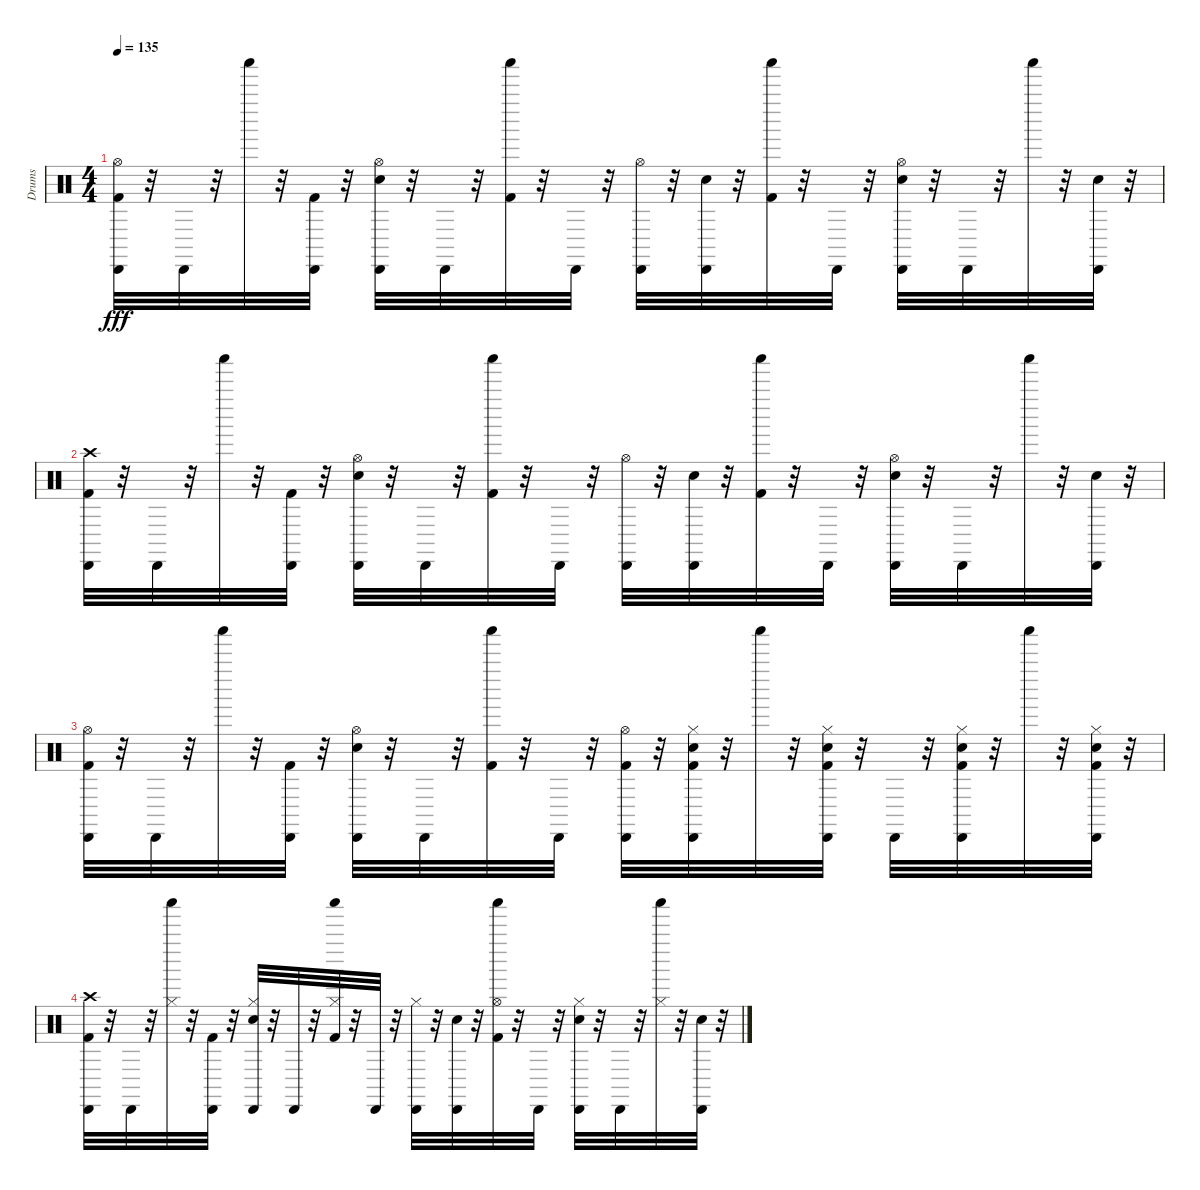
\track ("Drums" "Drums") {instrument percussion}
\staff {score}
\articulation defaults
\ts (4 4)
\tempo 135
\clef neutral
\ks c
("Hi-Hat (open)" "Kick (hit) 2" "Cabasa (hit)").32{dy fff} r.32 "Cabasa (hit)".32 r.32 "Shaker (hit)".32 r.32 ("Kick (hit) 2" "Cabasa (hit)").32 r.32 ("Snare (hit) 2" "Hi-Hat (open)" "Cabasa (hit)").32 r.32 "Cabasa (hit)".32 r.32 ("Kick (hit) 2" "Shaker (hit)").32 r.32 "Cabasa (hit)".32 r.32 ("Hi-Hat (open)" "Cabasa (hit)").32 r.32 ("Snare (hit) 2" "Cabasa (hit)").32 r.32 ("Kick (hit) 2" "Shaker (hit)").32 r.32 "Cabasa (hit)".32 r.32 ("Snare (hit) 2" "Hi-Hat (open)" "Cabasa (hit)").32 r.32 "Cabasa (hit)".32 r.32 "Shaker (hit)".32 r.32 ("Snare (hit) 2" "Cabasa (hit)").32 r.32 |
("Crash high (hit)" "Kick (hit) 2" "Cabasa (hit)").32 r.32 "Cabasa (hit)".32 r.32 "Shaker (hit)".32 r.32 ("Kick (hit) 2" "Cabasa (hit)").32 r.32 ("Snare (hit) 2" "Hi-Hat (open)" "Cabasa (hit)").32 r.32 "Cabasa (hit)".32 r.32 ("Kick (hit) 2" "Shaker (hit)").32 r.32 "Cabasa (hit)".32 r.32 ("Hi-Hat (open)" "Cabasa (hit)").32 r.32 ("Snare (hit) 2" "Cabasa (hit)").32 r.32 ("Kick (hit) 2" "Shaker (hit)").32 r.32 "Cabasa (hit)".32 r.32 ("Snare (hit) 2" "Hi-Hat (open)" "Cabasa (hit)").32 r.32 "Cabasa (hit)".32 r.32 "Shaker (hit)".32 r.32 ("Snare (hit) 2" "Cabasa (hit)").32 r.32 |
("Hi-Hat (open)" "Kick (hit) 2" "Cabasa (hit)").32 r.32 "Cabasa (hit)".32 r.32 "Shaker (hit)".32 r.32 ("Kick (hit) 2" "Cabasa (hit)").32 r.32 ("Snare (hit) 2" "Hi-Hat (open)" "Cabasa (hit)").32 r.32 "Cabasa (hit)".32 r.32 ("Kick (hit) 2" "Shaker (hit)").32 r.32 "Cabasa (hit)".32 r.32 ("Hi-Hat (open)" "Kick (hit) 2" "Cabasa (hit)").32 r.32 ("Snare (hit) 2" "Kick (hit) 2" "Hi-Hat (closed)" "Cabasa (hit)").32 r.32 "Shaker (hit)".32 r.32 ("Kick (hit) 2" "Snare (hit) 2" "Hi-Hat (closed)" "Cabasa (hit)").32 r.32 "Cabasa (hit)".32 r.32 ("Kick (hit) 2" "Snare (hit) 2" "Hi-Hat (closed)" "Cabasa (hit)").32 r.32 "Shaker (hit)".32 r.32 ("Snare (hit) 2" "Kick (hit) 2" "Hi-Hat (closed)" "Cabasa (hit)").32 r.32 |
("Crash high (hit)" "Kick (hit) 2" "Cabasa (hit)").32 r.32 "Cabasa (hit)".32 r.32 ("Shaker (hit)" "Hi-Hat (closed)").32 r.32 ("Kick (hit) 2" "Cabasa (hit)").32 r.32 ("Snare (hit) 2" "Hi-Hat (closed)" "Cabasa (hit)").32 r.32 "Cabasa (hit)".32 r.32 ("Kick (hit) 2" "Shaker (hit)" "Hi-Hat (closed)").32 r.32 "Cabasa (hit)".32 r.32 ("Hi-Hat (closed)" "Cabasa (hit)").32 r.32 ("Snare (hit) 2" "Cabasa (hit)").32 r.32 ("Kick (hit) 2" "Shaker (hit)" "Hi-Hat (open)").32 r.32 "Cabasa (hit)".32 r.32 ("Snare (hit) 2" "Hi-Hat (closed)" "Cabasa (hit)").32 r.32 "Cabasa (hit)".32 r.32 ("Shaker (hit)" "Hi-Hat (closed)").32 r.32 ("Snare (hit) 2" "Cabasa (hit)").32 r.32
